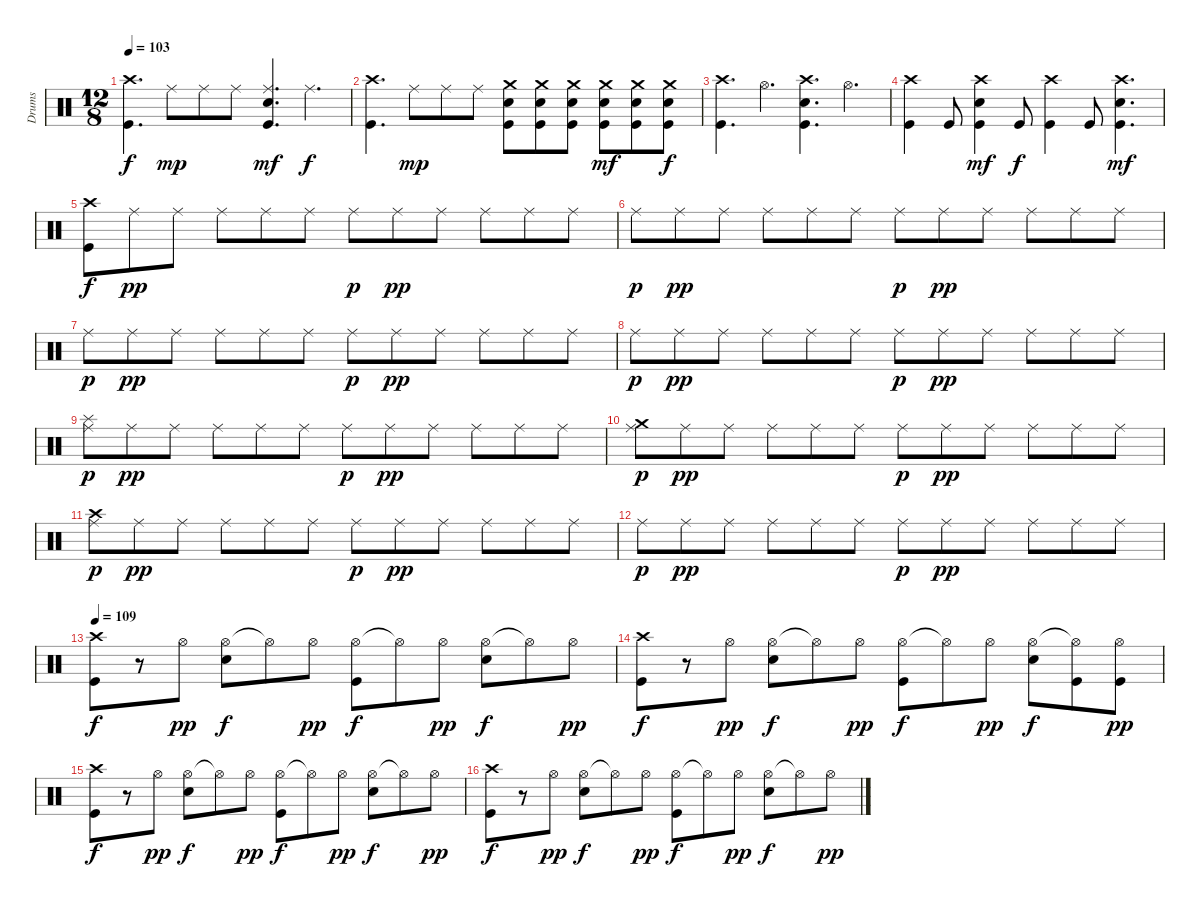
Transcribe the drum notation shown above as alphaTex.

\track ("Drums" "Drums") {instrument percussion}
\staff {score}
\articulation defaults
\ts (12 8)
\tempo 103
\clef neutral
\ks c
("Crash high (hit)" "Kick (hit)").4{d dy f} "Ride (middle)".8{dy mp} "Ride (middle)".8 "Ride (middle)".8 ("Ride (middle)" "Snare (hit) 2" "Kick (hit)").4{d dy mf} "Ride (middle)".4{d dy f} |
("Crash high (hit)" "Kick (hit)").4{d} "Ride (middle)".8{dy mp} "Ride (middle)".8 "Ride (middle)".8 ("Crash medium (hit)" "Snare (hit) 2" "Kick (hit)").8 ("Crash medium (hit)" "Snare (hit) 2" "Kick (hit)").8 ("Crash medium (hit)" "Snare (hit) 2" "Kick (hit)").8 ("Crash medium (hit)" "Snare (hit) 2" "Kick (hit)").8{dy mf} ("Crash medium (hit)" "Snare (hit) 2" "Kick (hit)").8 ("Crash medium (hit)" "Snare (hit) 2" "Kick (hit)").8{dy f} |
("Crash high (hit)" "Kick (hit)").4{d} "Hi-Hat (open)".4{d} ("Crash high (hit)" "Snare (hit) 2" "Kick (hit)").4{d} "Hi-Hat (open)".4{d} |
("Crash high (hit)" "Kick (hit)").4 "Kick (hit)".8 ("Crash high (hit)" "Snare (hit) 2" "Kick (hit)").4{dy mf} "Kick (hit)".8{dy f} ("Crash high (hit)" "Kick (hit)").4 "Kick (hit)".8 ("Crash high (hit)" "Snare (hit) 2" "Kick (hit)").4{d dy mf} |
("Crash high (hit)" "Kick (hit)").8{dy f} "Ride (middle)".8{dy pp} "Ride (middle)".8 "Ride (middle)".8 "Ride (middle)".8 "Ride (middle)".8 "Ride (middle)".8{dy p} "Ride (middle)".8{dy pp} "Ride (middle)".8 "Ride (middle)".8 "Ride (middle)".8 "Ride (middle)".8 |
"Ride (middle)".8{dy p} "Ride (middle)".8{dy pp} "Ride (middle)".8 "Ride (middle)".8 "Ride (middle)".8 "Ride (middle)".8 "Ride (middle)".8{dy p} "Ride (middle)".8{dy pp} "Ride (middle)".8 "Ride (middle)".8 "Ride (middle)".8 "Ride (middle)".8 |
"Ride (middle)".8{dy p} "Ride (middle)".8{dy pp} "Ride (middle)".8 "Ride (middle)".8 "Ride (middle)".8 "Ride (middle)".8 "Ride (middle)".8{dy p} "Ride (middle)".8{dy pp} "Ride (middle)".8 "Ride (middle)".8 "Ride (middle)".8 "Ride (middle)".8 |
"Ride (middle)".8{dy p} "Ride (middle)".8{dy pp} "Ride (middle)".8 "Ride (middle)".8 "Ride (middle)".8 "Ride (middle)".8 "Ride (middle)".8{dy p} "Ride (middle)".8{dy pp} "Ride (middle)".8 "Ride (middle)".8 "Ride (middle)".8 "Ride (middle)".8 |
("Splash (hit)" "Ride (middle)").8{dy p} "Ride (middle)".8{dy pp} "Ride (middle)".8 "Ride (middle)".8 "Ride (middle)".8 "Ride (middle)".8 "Ride (middle)".8{dy p} "Ride (middle)".8{dy pp} "Ride (middle)".8 "Ride (middle)".8 "Ride (middle)".8 "Ride (middle)".8 |
("Crash medium (hit)" "Ride (middle)").8{dy p} "Ride (middle)".8{dy pp} "Ride (middle)".8 "Ride (middle)".8 "Ride (middle)".8 "Ride (middle)".8 "Ride (middle)".8{dy p} "Ride (middle)".8{dy pp} "Ride (middle)".8 "Ride (middle)".8 "Ride (middle)".8 "Ride (middle)".8 |
("Crash high (hit)" "Ride (middle)").8{dy p} "Ride (middle)".8{dy pp} "Ride (middle)".8 "Ride (middle)".8 "Ride (middle)".8 "Ride (middle)".8 "Ride (middle)".8{dy p} "Ride (middle)".8{dy pp} "Ride (middle)".8 "Ride (middle)".8 "Ride (middle)".8 "Ride (middle)".8 |
"Ride (middle)".8{dy p} "Ride (middle)".8{dy pp} "Ride (middle)".8 "Ride (middle)".8 "Ride (middle)".8 "Ride (middle)".8 "Ride (middle)".8{dy p} "Ride (middle)".8{dy pp} "Ride (middle)".8 "Ride (middle)".8 "Ride (middle)".8 "Ride (middle)".8 |
\tempo 109
("Crash high (hit)" "Kick (hit)").8{dy f} r.8 "Hi-Hat (open)".8{dy pp} ("Hi-Hat (open)" "Snare (hit) 2").8{dy f} "Hi-Hat (open)"{t}.8 "Hi-Hat (open)".8{dy pp} ("Hi-Hat (open)" "Kick (hit)").8{dy f} "Hi-Hat (open)"{t}.8 "Hi-Hat (open)".8{dy pp} ("Hi-Hat (open)" "Snare (hit) 2").8{dy f} "Hi-Hat (open)"{t}.8 "Hi-Hat (open)".8{dy pp} |
("Crash high (hit)" "Kick (hit)").8{dy f} r.8 "Hi-Hat (open)".8{dy pp} ("Hi-Hat (open)" "Snare (hit) 2").8{dy f} "Hi-Hat (open)"{t}.8 "Hi-Hat (open)".8{dy pp} ("Hi-Hat (open)" "Kick (hit)").8{dy f} "Hi-Hat (open)"{t}.8 "Hi-Hat (open)".8{dy pp} ("Hi-Hat (open)" "Snare (hit) 2").8{dy f} ("Hi-Hat (open)"{t} "Kick (hit)").8 ("Hi-Hat (open)" "Kick (hit)").8{dy pp} |
("Crash high (hit)" "Kick (hit)").8{dy f} r.8 "Hi-Hat (open)".8{dy pp} ("Hi-Hat (open)" "Snare (hit) 2").8{dy f} "Hi-Hat (open)"{t}.8 "Hi-Hat (open)".8{dy pp} ("Hi-Hat (open)" "Kick (hit)").8{dy f} "Hi-Hat (open)"{t}.8 "Hi-Hat (open)".8{dy pp} ("Hi-Hat (open)" "Snare (hit) 2").8{dy f} "Hi-Hat (open)"{t}.8 "Hi-Hat (open)".8{dy pp} |
("Crash high (hit)" "Kick (hit)").8{dy f} r.8 "Hi-Hat (open)".8{dy pp} ("Hi-Hat (open)" "Snare (hit) 2").8{dy f} "Hi-Hat (open)"{t}.8 "Hi-Hat (open)".8{dy pp} ("Hi-Hat (open)" "Kick (hit)").8{dy f} "Hi-Hat (open)"{t}.8 "Hi-Hat (open)".8{dy pp} ("Hi-Hat (open)" "Snare (hit) 2").8{dy f} "Hi-Hat (open)"{t}.8 "Hi-Hat (open)".8{dy pp}
